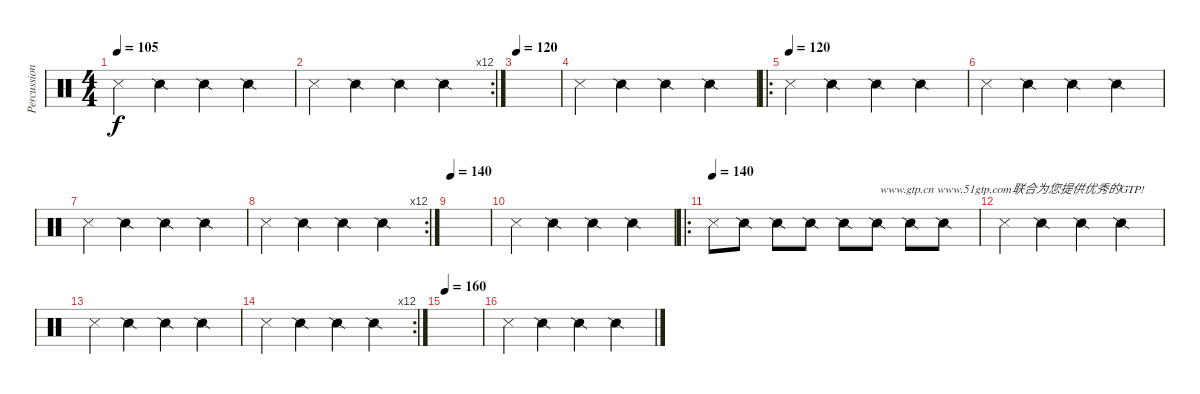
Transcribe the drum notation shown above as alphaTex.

\track ("Percussion" "Percussion") {instrument percussion}
\staff {score}
\articulation defaults
\ts (4 4)
\tempo 105
\clef neutral
\ks c "Metronome (hit)".4{dy f} "Snare (side stick) 2".4 "Snare (side stick) 2".4 "Snare (side stick) 2".4
|
\rc 12 "Metronome (hit)".4 "Snare (side stick) 2".4 "Snare (side stick) 2".4 "Snare (side stick) 2".4
|
\tempo 120
|
"Metronome (hit)".4 "Snare (side stick) 2".4 "Snare (side stick) 2".4 "Snare (side stick) 2".4 |
\ro
\tempo (120)
"Metronome (hit)".4 "Snare (side stick) 2".4 "Snare (side stick) 2".4 "Snare (side stick) 2".4 |
"Metronome (hit)".4 "Snare (side stick) 2".4 "Snare (side stick) 2".4 "Snare (side stick) 2".4 |
"Metronome (hit)".4 "Snare (side stick) 2".4 "Snare (side stick) 2".4 "Snare (side stick) 2".4 |
\rc 12 "Metronome (hit)".4 "Snare (side stick) 2".4 "Snare (side stick) 2".4 "Snare (side stick) 2".4
|
\tempo 140
|
"Metronome (hit)".4 "Snare (side stick) 2".4 "Snare (side stick) 2".4 "Snare (side stick) 2".4 |
\ro
\tempo (140)
"Metronome (hit)".8 "Snare (side stick) 2".8 "Snare (side stick) 2".8 "Snare (side stick) 2".8 "Snare (side stick) 2".8 "Snare (side stick) 2".8{txt "www.gtp.cn www.51gtp.com联合为您提供优秀的GTP!"} "Snare (side stick) 2".8 "Snare (side stick) 2".8 |
"Metronome (hit)".4 "Snare (side stick) 2".4 "Snare (side stick) 2".4 "Snare (side stick) 2".4 |
"Metronome (hit)".4 "Snare (side stick) 2".4 "Snare (side stick) 2".4 "Snare (side stick) 2".4 |
\rc 12 "Metronome (hit)".4 "Snare (side stick) 2".4 "Snare (side stick) 2".4 "Snare (side stick) 2".4
|
\tempo 160
|
"Metronome (hit)".4 "Snare (side stick) 2".4 "Snare (side stick) 2".4 "Snare (side stick) 2".4
